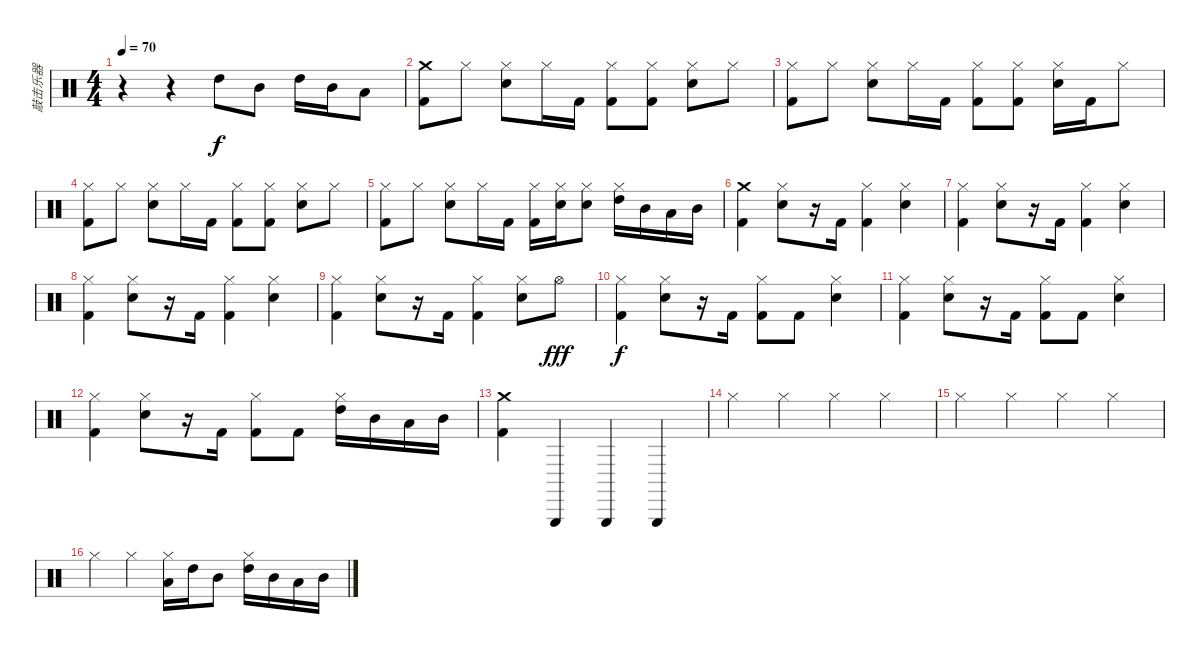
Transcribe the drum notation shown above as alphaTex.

\track ("敲击乐器" "敲击乐器") {instrument percussion}
\staff {score}
\articulation defaults
\ts (4 4)
\tempo 70
\clef neutral
\ks c
r.4{dy f} r.4 "High Tom (hit)".8 "Mid Tom (hit)".8 "High Tom (hit)".16 "Mid Tom (hit)".16 "Low Tom (hit)".8 |
("Crash medium (hit)" "Kick (hit) 2").8 "Hi-Hat (closed)".8 ("Hi-Hat (closed)" "Electric Snare (hit)").8 "Hi-Hat (closed)".16 "Kick (hit) 2".16 ("Hi-Hat (closed)" "Kick (hit) 2").8 ("Hi-Hat (closed)" "Kick (hit) 2").8 ("Hi-Hat (closed)" "Electric Snare (hit)").8 "Hi-Hat (closed)".8 |
("Hi-Hat (closed)" "Kick (hit) 2").8 "Hi-Hat (closed)".8 ("Hi-Hat (closed)" "Electric Snare (hit)").8 "Hi-Hat (closed)".16 "Kick (hit) 2".16 ("Hi-Hat (closed)" "Kick (hit) 2").8 ("Hi-Hat (closed)" "Kick (hit) 2").8 ("Hi-Hat (closed)" "Electric Snare (hit)").16 "Kick (hit) 2".16 "Hi-Hat (closed)".8 |
("Hi-Hat (closed)" "Kick (hit) 2").8 "Hi-Hat (closed)".8 ("Hi-Hat (closed)" "Electric Snare (hit)").8 "Hi-Hat (closed)".16 "Kick (hit) 2".16 ("Hi-Hat (closed)" "Kick (hit) 2").8 ("Hi-Hat (closed)" "Kick (hit) 2").8 ("Hi-Hat (closed)" "Electric Snare (hit)").8 "Hi-Hat (closed)".8 |
("Hi-Hat (closed)" "Kick (hit) 2").8 "Hi-Hat (closed)".8 ("Hi-Hat (closed)" "Electric Snare (hit)").8 "Hi-Hat (closed)".16 "Kick (hit) 2".16 ("Hi-Hat (closed)" "Kick (hit) 2").16 ("Hi-Hat (closed)" "Electric Snare (hit)").16 ("Hi-Hat (closed)" "Electric Snare (hit)").8 ("Hi-Hat (closed)" "High Tom (hit)").16 "Mid Tom (hit)".16 "Low Tom (hit)".16 "Mid Tom (hit)".16 |
("Crash medium (hit)" "Kick (hit) 2").4 ("Hi-Hat (closed)" "Hand Clap (hit)").8 r.16 "Kick (hit) 2".16 ("Hi-Hat (closed)" "Kick (hit) 2").4 ("Hi-Hat (closed)" "Hand Clap (hit)").4 |
("Hi-Hat (closed)" "Kick (hit) 2").4 ("Hi-Hat (closed)" "Hand Clap (hit)").8 r.16 "Kick (hit) 2".16 ("Hi-Hat (closed)" "Kick (hit) 2").4 ("Hi-Hat (closed)" "Hand Clap (hit)").4 |
("Hi-Hat (closed)" "Kick (hit) 2").4 ("Hi-Hat (closed)" "Hand Clap (hit)").8 r.16 "Kick (hit) 2".16 ("Hi-Hat (closed)" "Kick (hit) 2").4 ("Hi-Hat (closed)" "Hand Clap (hit)").4 |
("Hi-Hat (closed)" "Kick (hit) 2").4 ("Hi-Hat (closed)" "Hand Clap (hit)").8 r.16 "Kick (hit) 2".16 ("Hi-Hat (closed)" "Kick (hit) 2").4 ("Hi-Hat (closed)" "Hand Clap (hit)").8 "Hi-Hat (open)".8{dy fff} |
("Hi-Hat (closed)" "Kick (hit) 2").4{dy f} ("Hi-Hat (closed)" "Hand Clap (hit)").8 r.16 "Kick (hit) 2".16 ("Hi-Hat (closed)" "Kick (hit) 2").8 "Kick (hit) 2".8 ("Hi-Hat (closed)" "Hand Clap (hit)").4 |
("Hi-Hat (closed)" "Kick (hit) 2").4 ("Hi-Hat (closed)" "Hand Clap (hit)").8 r.16 "Kick (hit) 2".16 ("Hi-Hat (closed)" "Kick (hit) 2").8 "Kick (hit) 2".8 ("Hi-Hat (closed)" "Hand Clap (hit)").4 |
("Hi-Hat (closed)" "Kick (hit) 2").4 ("Hi-Hat (closed)" "Hand Clap (hit)").8 r.16 "Kick (hit) 2".16 ("Hi-Hat (closed)" "Kick (hit) 2").8 "Kick (hit) 2".8 ("Hi-Hat (closed)" "High Tom (hit)").16 "Mid Tom (hit)".16 "Low Tom (hit)".16 "Mid Tom (hit)".16 |
("Crash medium (hit)" "Kick (hit) 2").4 "Triangle (hit)".4 "Triangle (hit)".4 "Triangle (hit)".4 |
"Hi-Hat (closed)".4 "Hi-Hat (closed)".4 "Hi-Hat (closed)".4 "Hi-Hat (closed)".4 |
"Hi-Hat (closed)".4 "Hi-Hat (closed)".4 "Hi-Hat (closed)".4 "Hi-Hat (closed)".4 |
"Hi-Hat (closed)".4 "Hi-Hat (closed)".4 ("Hi-Hat (closed)" "Low Tom (hit)").16 "High Tom (hit)".16 "Mid Tom (hit)".8 ("Hi-Hat (closed)" "High Tom (hit)").16 "Mid Tom (hit)".16 "Low Tom (hit)".16 "Mid Tom (hit)".16
